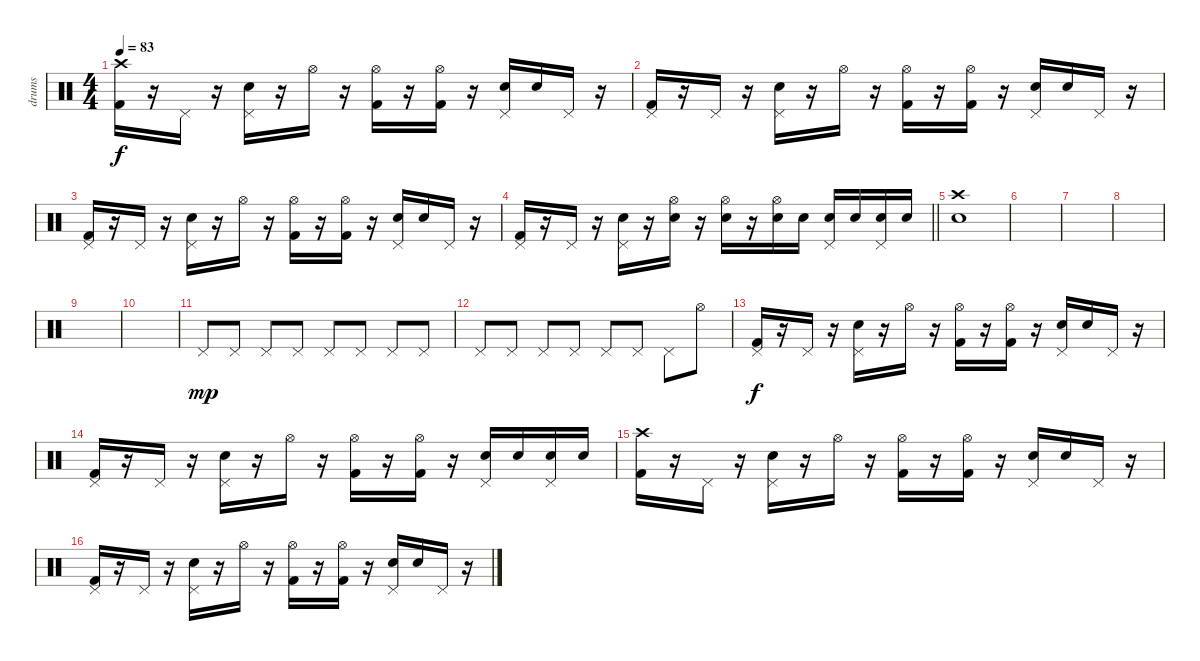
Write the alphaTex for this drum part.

\track ("drums" "drums") {instrument percussion}
\staff {score}
\articulation defaults
\ts (4 4)
\tempo 83
\clef neutral
\ks c
("Kick (hit) 2" "Crash high (hit)").16{dy f} r.16 "Pedal Hi-Hat (hit)".16 r.16 ("Electric Snare (hit)" "Pedal Hi-Hat (hit)").16 r.16 "Hi-Hat (open)".16 r.16 ("Kick (hit) 2" "Hi-Hat (open)").16 r.16 ("Kick (hit) 2" "Hi-Hat (open)").16 r.16 ("Electric Snare (hit)" "Pedal Hi-Hat (hit)").16 "Electric Snare (hit)".16 "Pedal Hi-Hat (hit)".16 r.16 |
("Kick (hit) 2" "Pedal Hi-Hat (hit)").16 r.16 "Pedal Hi-Hat (hit)".16 r.16 ("Electric Snare (hit)" "Pedal Hi-Hat (hit)").16 r.16 "Hi-Hat (open)".16 r.16 ("Kick (hit) 2" "Hi-Hat (open)").16 r.16 ("Kick (hit) 2" "Hi-Hat (open)").16 r.16 ("Electric Snare (hit)" "Pedal Hi-Hat (hit)").16 "Electric Snare (hit)".16 "Pedal Hi-Hat (hit)".16 r.16 |
("Kick (hit) 2" "Pedal Hi-Hat (hit)").16 r.16 "Pedal Hi-Hat (hit)".16 r.16 ("Electric Snare (hit)" "Pedal Hi-Hat (hit)").16 r.16 "Hi-Hat (open)".16 r.16 ("Kick (hit) 2" "Hi-Hat (open)").16 r.16 ("Kick (hit) 2" "Hi-Hat (open)").16 r.16 ("Electric Snare (hit)" "Pedal Hi-Hat (hit)").16 "Electric Snare (hit)".16 "Pedal Hi-Hat (hit)".16 r.16 |
\barLineRight lightlight
("Kick (hit) 2" "Pedal Hi-Hat (hit)").16 r.16 "Pedal Hi-Hat (hit)".16 r.16 ("Electric Snare (hit)" "Pedal Hi-Hat (hit)").16 r.16 ("Electric Snare (hit)" "Hi-Hat (open)").16 r.16 ("Electric Snare (hit)" "Hi-Hat (open)").16 r.16 ("Electric Snare (hit)" "Hi-Hat (open)").16 "Electric Snare (hit)".16 ("Electric Snare (hit)" "Pedal Hi-Hat (hit)").16 "Electric Snare (hit)".16 ("Electric Snare (hit)" "Pedal Hi-Hat (hit)").16 "Electric Snare (hit)".16 |
("Electric Snare (hit)" "Crash high (hit)").1 |
|
|
|
|
|
"Pedal Hi-Hat (hit)".8{dy mp} "Pedal Hi-Hat (hit)".8 "Pedal Hi-Hat (hit)".8 "Pedal Hi-Hat (hit)".8 "Pedal Hi-Hat (hit)".8 "Pedal Hi-Hat (hit)".8 "Pedal Hi-Hat (hit)".8 "Pedal Hi-Hat (hit)".8 |
"Pedal Hi-Hat (hit)".8 "Pedal Hi-Hat (hit)".8 "Pedal Hi-Hat (hit)".8 "Pedal Hi-Hat (hit)".8 "Pedal Hi-Hat (hit)".8 "Pedal Hi-Hat (hit)".8 "Pedal Hi-Hat (hit)".8 "Hi-Hat (open)".8 |
("Kick (hit) 2" "Pedal Hi-Hat (hit)").16{dy f} r.16 "Pedal Hi-Hat (hit)".16 r.16 ("Electric Snare (hit)" "Pedal Hi-Hat (hit)").16 r.16 "Hi-Hat (open)".16 r.16 ("Kick (hit) 2" "Hi-Hat (open)").16 r.16 ("Kick (hit) 2" "Hi-Hat (open)").16 r.16 ("Electric Snare (hit)" "Pedal Hi-Hat (hit)").16 "Electric Snare (hit)".16 "Pedal Hi-Hat (hit)".16 r.16 |
("Kick (hit) 2" "Pedal Hi-Hat (hit)").16 r.16 "Pedal Hi-Hat (hit)".16 r.16 ("Electric Snare (hit)" "Pedal Hi-Hat (hit)").16 r.16 "Hi-Hat (open)".16 r.16 ("Kick (hit) 2" "Hi-Hat (open)").16 r.16 ("Kick (hit) 2" "Hi-Hat (open)").16 r.16 ("Electric Snare (hit)" "Pedal Hi-Hat (hit)").16 "Electric Snare (hit)".16 ("Electric Snare (hit)" "Pedal Hi-Hat (hit)").16 "Electric Snare (hit)".16 |
("Kick (hit) 2" "Crash high (hit)").16 r.16 "Pedal Hi-Hat (hit)".16 r.16 ("Electric Snare (hit)" "Pedal Hi-Hat (hit)").16 r.16 "Hi-Hat (open)".16 r.16 ("Kick (hit) 2" "Hi-Hat (open)").16 r.16 ("Kick (hit) 2" "Hi-Hat (open)").16 r.16 ("Electric Snare (hit)" "Pedal Hi-Hat (hit)").16 "Electric Snare (hit)".16 "Pedal Hi-Hat (hit)".16 r.16 |
("Kick (hit) 2" "Pedal Hi-Hat (hit)").16 r.16 "Pedal Hi-Hat (hit)".16 r.16 ("Electric Snare (hit)" "Pedal Hi-Hat (hit)").16 r.16 "Hi-Hat (open)".16 r.16 ("Kick (hit) 2" "Hi-Hat (open)").16 r.16 ("Kick (hit) 2" "Hi-Hat (open)").16 r.16 ("Electric Snare (hit)" "Pedal Hi-Hat (hit)").16 "Electric Snare (hit)".16 "Pedal Hi-Hat (hit)".16 r.16
